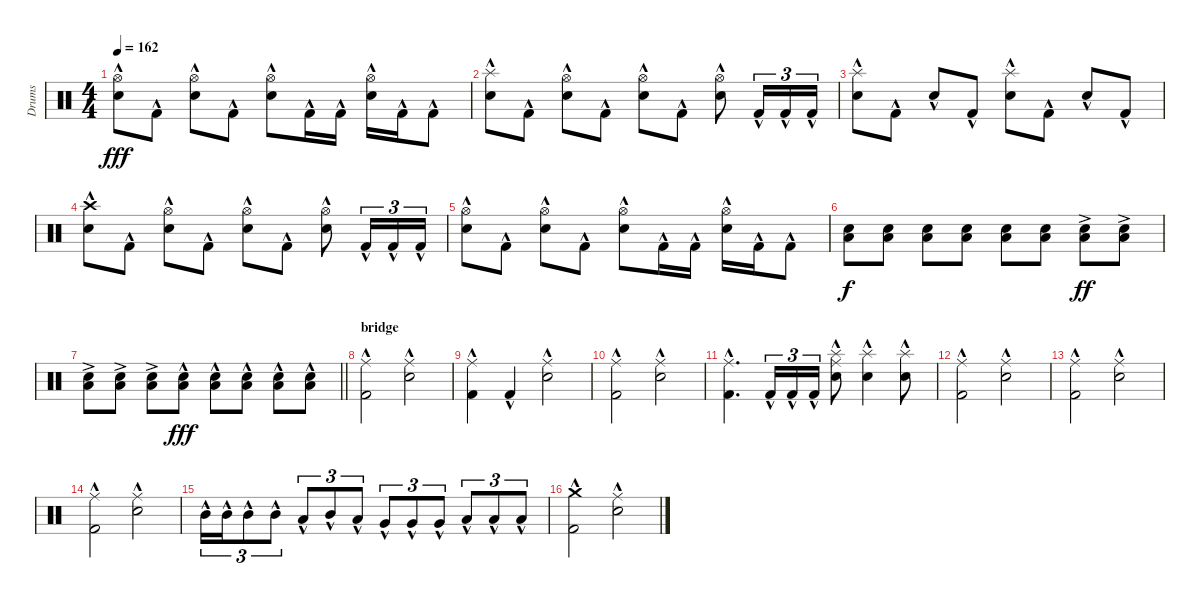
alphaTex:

\track ("Drums" "Drums") {instrument percussion}
\staff {score}
\articulation defaults
\ts (4 4)
\tempo 162
\clef neutral
\ks c
("Hi-Hat (open)"{hac} "Electric Snare (hit)"{hac}).8{dy fff} "Kick (hit) 2"{hac}.8 ("Hi-Hat (open)"{hac} "Electric Snare (hit)"{hac}).8 "Kick (hit) 2"{hac}.8 ("Hi-Hat (open)"{hac} "Electric Snare (hit)"{hac}).8 "Kick (hit) 2"{hac}.16 "Kick (hit) 2"{hac}.16 ("Hi-Hat (open)"{hac} "Electric Snare (hit)"{hac}).16 "Kick (hit) 2"{hac}.16 "Kick (hit) 2"{hac}.8 |
("Electric Snare (hit)"{hac} "Splash (hit)"{hac}).8 "Kick (hit) 2"{hac}.8 ("Hi-Hat (open)"{hac} "Electric Snare (hit)"{hac}).8 "Kick (hit) 2"{hac}.8 ("Hi-Hat (open)"{hac} "Electric Snare (hit)"{hac}).8 "Kick (hit) 2"{hac}.8 ("Hi-Hat (open)"{hac} "Electric Snare (hit)"{hac}).8 "Kick (hit) 2"{hac}.16{tu (3 2)} "Kick (hit) 2"{hac}.16{tu (3 2)} "Kick (hit) 2"{hac}.16{tu (3 2)} |
("Electric Snare (hit)"{hac} "Splash (hit)"{hac}).8 "Kick (hit) 2"{hac}.8 "Electric Snare (hit)"{hac}.8 "Kick (hit) 2"{hac}.8 ("Electric Snare (hit)"{hac} "Splash (hit)"{hac}).8 "Kick (hit) 2"{hac}.8 "Electric Snare (hit)"{hac}.8 "Kick (hit) 2"{hac}.8 |
("Electric Snare (hit)"{hac} "Crash high (hit)"{hac}).8 "Kick (hit) 2"{hac}.8 ("Hi-Hat (open)"{hac} "Electric Snare (hit)"{hac}).8 "Kick (hit) 2"{hac}.8 ("Hi-Hat (open)"{hac} "Electric Snare (hit)"{hac}).8 "Kick (hit) 2"{hac}.8 ("Hi-Hat (open)"{hac} "Electric Snare (hit)"{hac}).8 "Kick (hit) 2"{hac}.16{tu (3 2)} "Kick (hit) 2"{hac}.16{tu (3 2)} "Kick (hit) 2"{hac}.16{tu (3 2)} |
("Hi-Hat (open)"{hac} "Electric Snare (hit)"{hac}).8 "Kick (hit) 2"{hac}.8 ("Hi-Hat (open)"{hac} "Electric Snare (hit)"{hac}).8 "Kick (hit) 2"{hac}.8 ("Hi-Hat (open)"{hac} "Electric Snare (hit)"{hac}).8 "Kick (hit) 2"{hac}.16 "Kick (hit) 2"{hac}.16 ("Hi-Hat (open)"{hac} "Electric Snare (hit)"{hac}).16 "Kick (hit) 2"{hac}.16 "Kick (hit) 2"{hac}.8 |
("Electric Snare (hit)" "Low Floor Tom (hit)").8{dy f} ("Electric Snare (hit)" "Low Floor Tom (hit)").8 ("Electric Snare (hit)" "Low Floor Tom (hit)").8 ("Electric Snare (hit)" "Low Floor Tom (hit)").8 ("Electric Snare (hit)" "Low Floor Tom (hit)").8 ("Electric Snare (hit)" "Low Floor Tom (hit)").8 ("Electric Snare (hit)"{ac} "Low Floor Tom (hit)"{ac}).8{dy ff} ("Electric Snare (hit)"{ac} "Low Floor Tom (hit)"{ac}).8 |
\barLineRight lightlight
("Electric Snare (hit)"{ac} "Low Floor Tom (hit)"{ac}).8 ("Electric Snare (hit)"{ac} "Low Floor Tom (hit)"{ac}).8 ("Electric Snare (hit)"{ac} "Low Floor Tom (hit)"{ac}).8 ("Electric Snare (hit)"{hac} "Low Floor Tom (hit)"{hac}).8{dy fff} ("Electric Snare (hit)"{hac} "Low Floor Tom (hit)"{hac}).8 ("Electric Snare (hit)"{hac} "Low Floor Tom (hit)"{hac}).8 ("Electric Snare (hit)"{hac} "Low Floor Tom (hit)"{hac}).8 ("Electric Snare (hit)"{hac} "Low Floor Tom (hit)"{hac}).8 |
\section ("" "bridge")
("Ride (middle)"{hac} "Kick (hit) 2"{hac}).2 ("Ride (middle)"{hac} "Electric Snare (hit)"{hac}).2 |
("Ride (middle)"{hac} "Kick (hit) 2"{hac}).4 "Kick (hit) 2"{hac}.4 ("Ride (middle)"{hac} "Electric Snare (hit)"{hac}).2 |
("Ride (middle)"{hac} "Kick (hit) 2"{hac}).2 ("Ride (middle)"{hac} "Electric Snare (hit)"{hac}).2 |
("Ride (middle)"{hac} "Kick (hit) 2"{hac}).4{d} "Kick (hit) 2"{hac}.16{tu (3 2)} "Kick (hit) 2"{hac}.16{tu (3 2)} "Kick (hit) 2"{hac}.16{tu (3 2)} ("Ride (middle)"{hac} "Electric Snare (hit)"{hac} "Splash (hit)"{hac}).8 ("Electric Snare (hit)"{hac} "Splash (hit)"{hac}).4 ("Electric Snare (hit)"{hac} "Splash (hit)"{hac}).8 |
("Ride (middle)"{hac} "Kick (hit) 2"{hac}).2 ("Ride (middle)"{hac} "Electric Snare (hit)"{hac}).2 |
("Ride (middle)"{hac} "Kick (hit) 2"{hac}).2 ("Ride (middle)"{hac} "Electric Snare (hit)"{hac}).2 |
("Ride (middle)"{hac} "Kick (hit) 2"{hac}).2 ("Ride (middle)"{hac} "Electric Snare (hit)"{hac}).2 |
"Mid Tom (hit)"{hac}.16{tu (3 2)} "Mid Tom (hit)"{hac}.16{tu (3 2)} "Mid Tom (hit)"{hac}.8{tu (3 2)} "Mid Tom (hit)"{hac}.8{tu (3 2)} "Low Tom (hit)"{hac}.8{tu (3 2)} "Mid Tom (hit)"{hac}.8{tu (3 2)} "Low Tom (hit)"{hac}.8{tu (3 2)} "Very Low Tom (hit)"{hac}.8{tu (3 2)} "Very Low Tom (hit)"{hac}.8{tu (3 2)} "Very Low Tom (hit)"{hac}.8{tu (3 2)} "Low Floor Tom (hit)"{hac}.8{tu (3 2)} "Low Floor Tom (hit)"{hac}.8{tu (3 2)} "Low Floor Tom (hit)"{hac}.8{tu (3 2)} |
("Kick (hit) 2"{hac} "Crash medium (hit)"{hac}).2 ("Ride (middle)"{hac} "Electric Snare (hit)"{hac}).2
